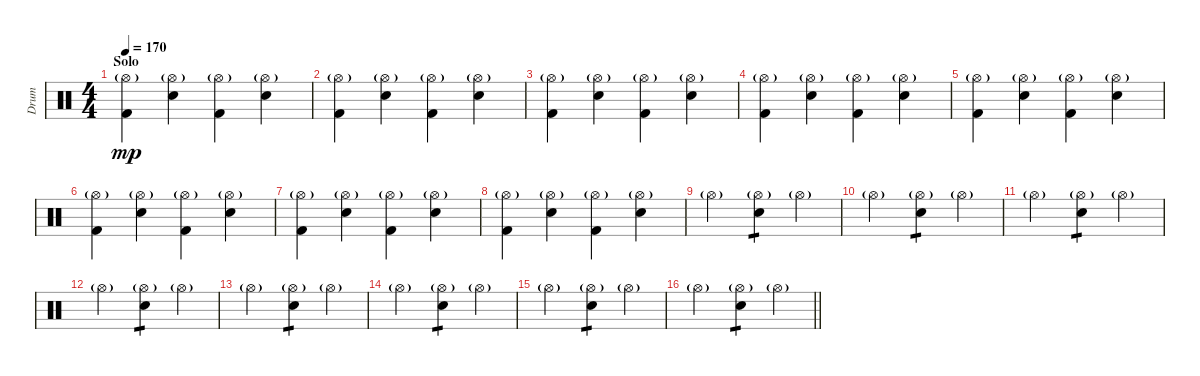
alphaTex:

\track ("Drum" "Drum") {instrument percussion}
\staff {score}
\articulation defaults
\ts (4 4)
\section ("" "Solo")
\tempo 170
\clef neutral
\ks c
("Hi-Hat (open)"{g} "Kick (hit) 2").4{dy mp} ("Hi-Hat (open)"{g} "Electric Snare (hit)").4 ("Hi-Hat (open)"{g} "Kick (hit) 2").4 ("Hi-Hat (open)"{g} "Electric Snare (hit)").4 |
("Hi-Hat (open)"{g} "Kick (hit) 2").4 ("Hi-Hat (open)"{g} "Electric Snare (hit)").4 ("Hi-Hat (open)"{g} "Kick (hit) 2").4 ("Hi-Hat (open)"{g} "Electric Snare (hit)").4 |
("Hi-Hat (open)"{g} "Kick (hit) 2").4 ("Hi-Hat (open)"{g} "Electric Snare (hit)").4 ("Hi-Hat (open)"{g} "Kick (hit) 2").4 ("Hi-Hat (open)"{g} "Electric Snare (hit)").4 |
("Hi-Hat (open)"{g} "Kick (hit) 2").4 ("Hi-Hat (open)"{g} "Electric Snare (hit)").4 ("Hi-Hat (open)"{g} "Kick (hit) 2").4 ("Hi-Hat (open)"{g} "Electric Snare (hit)").4 |
("Hi-Hat (open)"{g} "Kick (hit) 2").4 ("Hi-Hat (open)"{g} "Electric Snare (hit)").4 ("Hi-Hat (open)"{g} "Kick (hit) 2").4 ("Hi-Hat (open)"{g} "Electric Snare (hit)").4 |
("Hi-Hat (open)"{g} "Kick (hit) 2").4 ("Hi-Hat (open)"{g} "Electric Snare (hit)").4 ("Hi-Hat (open)"{g} "Kick (hit) 2").4 ("Hi-Hat (open)"{g} "Electric Snare (hit)").4 |
("Hi-Hat (open)"{g} "Kick (hit) 2").4 ("Hi-Hat (open)"{g} "Electric Snare (hit)").4 ("Hi-Hat (open)"{g} "Kick (hit) 2").4 ("Hi-Hat (open)"{g} "Electric Snare (hit)").4 |
("Hi-Hat (open)"{g} "Kick (hit) 2").4 ("Hi-Hat (open)"{g} "Electric Snare (hit)").4 ("Hi-Hat (open)"{g} "Kick (hit) 2").4 ("Hi-Hat (open)"{g} "Electric Snare (hit)").4 |
"Hi-Hat (open)"{g}.2 ("Hi-Hat (open)"{g} "Electric Snare (hit)").4{tp 1} "Hi-Hat (open)"{g}.4 |
"Hi-Hat (open)"{g}.2 ("Hi-Hat (open)"{g} "Electric Snare (hit)").4{tp 1} "Hi-Hat (open)"{g}.4 |
"Hi-Hat (open)"{g}.2 ("Hi-Hat (open)"{g} "Electric Snare (hit)").4{tp 1} "Hi-Hat (open)"{g}.4 |
"Hi-Hat (open)"{g}.2 ("Hi-Hat (open)"{g} "Electric Snare (hit)").4{tp 1} "Hi-Hat (open)"{g}.4 |
"Hi-Hat (open)"{g}.2 ("Hi-Hat (open)"{g} "Electric Snare (hit)").4{tp 1} "Hi-Hat (open)"{g}.4 |
"Hi-Hat (open)"{g}.2 ("Hi-Hat (open)"{g} "Electric Snare (hit)").4{tp 1} "Hi-Hat (open)"{g}.4 |
"Hi-Hat (open)"{g}.2 ("Hi-Hat (open)"{g} "Electric Snare (hit)").4{tp 1} "Hi-Hat (open)"{g}.4 |
\barLineRight lightlight "Hi-Hat (open)"{g}.2
("Hi-Hat (open)"{g} "Electric Snare (hit)").4{tp 1} "Hi-Hat (open)"{g}.4
